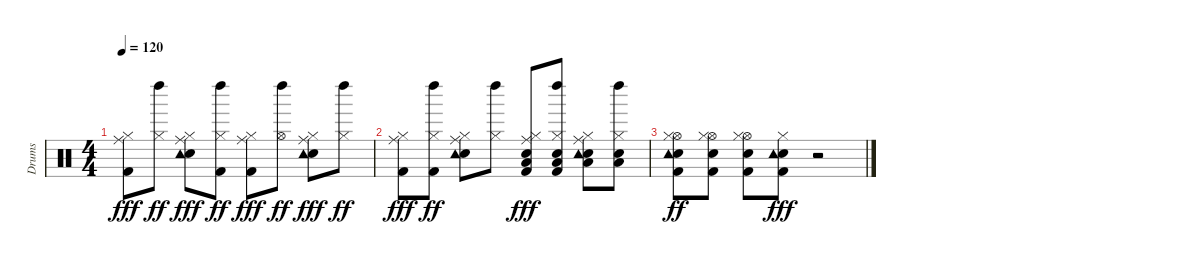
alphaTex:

\track ("Drums" "Drums") {instrument percussion}
\staff {score}
\articulation defaults
\ts (4 4)
\tempo 120
\clef neutral
\ks c
("Kick (hit) 2" "Hi-Hat (closed)" "Ride (middle)").8{dy fff} ("Hi-Hat (closed)" "Left Maraca (hit)").8{dy ff} ("Hi-Hat (closed)" "Snare (hit) 2" "Tambourine (hit)" "Ride (middle)").8{dy fff} ("Kick (hit) 2" "Hi-Hat (closed)" "Left Maraca (hit)").8{dy ff} ("Kick (hit) 2" "Hi-Hat (closed)" "Ride (middle)").8{dy fff} ("Hi-Hat (open)" "Left Maraca (hit)").8{dy ff} ("Hi-Hat (closed)" "Snare (hit) 2" "Tambourine (hit)" "Ride (middle)").8{dy fff} ("Hi-Hat (closed)" "Left Maraca (hit)").8{dy ff} |
("Kick (hit) 2" "Hi-Hat (closed)" "Ride (middle)").8{dy fff} ("Kick (hit) 2" "Hi-Hat (closed)" "Left Maraca (hit)").8{dy ff} ("Hi-Hat (closed)" "Snare (hit) 2" "Tambourine (hit)" "Ride (middle)").8 ("Hi-Hat (closed)" "Left Maraca (hit)").8 ("Kick (hit) 2" "Hi-Hat (closed)" "Snare (hit) 2" "Ride (middle)" "Low Floor Tom (hit)").8{dy fff} ("Kick (hit) 2" "Hi-Hat (closed)" "Left Maraca (hit)" "Snare (hit) 2" "Low Floor Tom (hit)").8 ("Hi-Hat (closed)" "Low Floor Tom (hit)" "Snare (hit) 2" "Tambourine (hit)" "Ride (middle)").8 ("Hi-Hat (closed)" "Left Maraca (hit)" "Snare (hit) 2" "Low Floor Tom (hit)").8 |
("Kick (hit) 2" "Snare (hit) 2" "Tambourine (hit)" "Hi-Hat (open)" "Hi-Hat (closed)").8{dy ff} ("Kick (hit) 2" "Hi-Hat (open)" "Snare (hit) 2" "Hi-Hat (closed)").8 ("Kick (hit) 2" "Hi-Hat (open)" "Snare (hit) 2" "Hi-Hat (closed)").8 ("Kick (hit) 2" "Hi-Hat (closed)" "Snare (hit) 2" "Tambourine (hit)").8{dy fff} r.2
